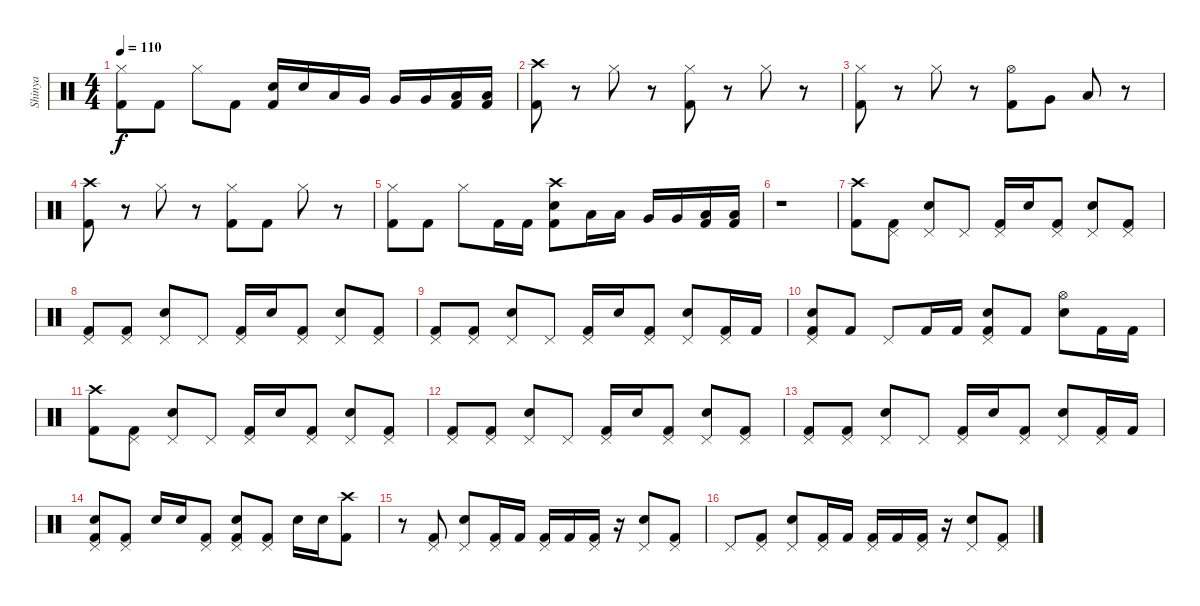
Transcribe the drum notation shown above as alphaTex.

\track ("Shinya" "Shinya") {instrument percussion}
\staff {score}
\articulation defaults
\ts (4 4)
\tempo 110
\clef neutral
\ks c
("Hi-Hat (closed)" "Kick (hit) 2").8{dy f} "Kick (hit) 2".8 "Hi-Hat (closed)".8 "Kick (hit) 2".8 ("Electric Snare (hit)" "Kick (hit) 2").16 "Electric Snare (hit)".16 "Low Tom (hit)".16 "Very Low Tom (hit)".16 "Very Low Tom (hit)".16 "Very Low Tom (hit)".16 ("Low Floor Tom (hit)" "Kick (hit) 2").16 ("Low Floor Tom (hit)" "Kick (hit) 2").16 |
("Crash high (hit)" "Kick (hit) 2").8 r.8 "Hi-Hat (closed)".8 r.8 ("Hi-Hat (closed)" "Kick (hit) 2").8 r.8 "Hi-Hat (closed)".8 r.8 |
("Hi-Hat (closed)" "Kick (hit) 2").8 r.8 "Hi-Hat (closed)".8 r.8 ("Hi-Hat (open)" "Kick (hit) 2").8 "Very Low Tom (hit)".8 "Low Floor Tom (hit)".8 r.8 |
("Crash high (hit)" "Kick (hit) 2").8 r.8 "Hi-Hat (closed)".8 r.8 ("Hi-Hat (closed)" "Kick (hit) 2").8 "Kick (hit) 2".8 "Hi-Hat (closed)".8 r.8 |
("Hi-Hat (closed)" "Kick (hit) 2").8 "Kick (hit) 2".8 "Hi-Hat (closed)".8 "Kick (hit) 2".16 "Kick (hit) 2".16 ("Crash high (hit)" "Electric Snare (hit)" "Kick (hit) 2").8 "Low Tom (hit)".16 "Low Tom (hit)".16 "Very Low Tom (hit)".16 "Very Low Tom (hit)".16 ("Low Floor Tom (hit)" "Kick (hit) 2").16 ("Low Floor Tom (hit)" "Kick (hit) 2").16 |
r.1 |
("Crash high (hit)" "Kick (hit) 2").8 ("Pedal Hi-Hat (hit)" "Kick (hit) 2").8 ("Pedal Hi-Hat (hit)" "Electric Snare (hit)").8 "Pedal Hi-Hat (hit)".8 ("Pedal Hi-Hat (hit)" "Kick (hit) 2").16 "Electric Snare (hit)".16 ("Pedal Hi-Hat (hit)" "Kick (hit) 2").8 ("Pedal Hi-Hat (hit)" "Electric Snare (hit)").8 ("Pedal Hi-Hat (hit)" "Kick (hit) 2").8 |
("Pedal Hi-Hat (hit)" "Kick (hit) 2").8 ("Pedal Hi-Hat (hit)" "Kick (hit) 2").8 ("Pedal Hi-Hat (hit)" "Electric Snare (hit)").8 "Pedal Hi-Hat (hit)".8 ("Pedal Hi-Hat (hit)" "Kick (hit) 2").16 "Electric Snare (hit)".16 ("Pedal Hi-Hat (hit)" "Kick (hit) 2").8 ("Pedal Hi-Hat (hit)" "Electric Snare (hit)").8 ("Pedal Hi-Hat (hit)" "Kick (hit) 2").8 |
("Pedal Hi-Hat (hit)" "Kick (hit) 2").8 ("Pedal Hi-Hat (hit)" "Kick (hit) 2").8 ("Pedal Hi-Hat (hit)" "Electric Snare (hit)").8 "Pedal Hi-Hat (hit)".8 ("Pedal Hi-Hat (hit)" "Kick (hit) 2").16 "Electric Snare (hit)".16 ("Pedal Hi-Hat (hit)" "Kick (hit) 2").8 ("Pedal Hi-Hat (hit)" "Electric Snare (hit)").8 ("Pedal Hi-Hat (hit)" "Kick (hit) 2").16 "Kick (hit) 2".16 |
("Pedal Hi-Hat (hit)" "Electric Snare (hit)" "Kick (hit) 2").8 "Kick (hit) 2".8 "Pedal Hi-Hat (hit)".8 "Kick (hit) 2".16 "Kick (hit) 2".16 ("Pedal Hi-Hat (hit)" "Electric Snare (hit)" "Kick (hit) 2").8 "Kick (hit) 2".8 ("Hi-Hat (open)" "Electric Snare (hit)").8 "Kick (hit) 2".16 "Kick (hit) 2".16 |
("Crash high (hit)" "Kick (hit) 2").8 ("Pedal Hi-Hat (hit)" "Kick (hit) 2").8 ("Pedal Hi-Hat (hit)" "Electric Snare (hit)").8 "Pedal Hi-Hat (hit)".8 ("Pedal Hi-Hat (hit)" "Kick (hit) 2").16 "Electric Snare (hit)".16 ("Pedal Hi-Hat (hit)" "Kick (hit) 2").8 ("Pedal Hi-Hat (hit)" "Electric Snare (hit)").8 ("Pedal Hi-Hat (hit)" "Kick (hit) 2").8 |
("Pedal Hi-Hat (hit)" "Kick (hit) 2").8 ("Pedal Hi-Hat (hit)" "Kick (hit) 2").8 ("Pedal Hi-Hat (hit)" "Electric Snare (hit)").8 "Pedal Hi-Hat (hit)".8 ("Pedal Hi-Hat (hit)" "Kick (hit) 2").16 "Electric Snare (hit)".16 ("Pedal Hi-Hat (hit)" "Kick (hit) 2").8 ("Pedal Hi-Hat (hit)" "Electric Snare (hit)").8 ("Pedal Hi-Hat (hit)" "Kick (hit) 2").8 |
("Pedal Hi-Hat (hit)" "Kick (hit) 2").8 ("Pedal Hi-Hat (hit)" "Kick (hit) 2").8 ("Pedal Hi-Hat (hit)" "Electric Snare (hit)").8 "Pedal Hi-Hat (hit)".8 ("Pedal Hi-Hat (hit)" "Kick (hit) 2").16 "Electric Snare (hit)".16 ("Pedal Hi-Hat (hit)" "Kick (hit) 2").8 ("Pedal Hi-Hat (hit)" "Electric Snare (hit)").8 ("Pedal Hi-Hat (hit)" "Kick (hit) 2").16 "Kick (hit) 2".16 |
("Pedal Hi-Hat (hit)" "Electric Snare (hit)" "Kick (hit) 2").8 ("Pedal Hi-Hat (hit)" "Kick (hit) 2").8 "Electric Snare (hit)".16 "Electric Snare (hit)".16 ("Pedal Hi-Hat (hit)" "Kick (hit) 2").8 ("Pedal Hi-Hat (hit)" "Electric Snare (hit)" "Kick (hit) 2").8 ("Pedal Hi-Hat (hit)" "Kick (hit) 2").8 "Electric Snare (hit)".16 "Electric Snare (hit)".16 ("Crash high (hit)" "Kick (hit) 2").8 |
r.8 ("Pedal Hi-Hat (hit)" "Kick (hit) 2").8 ("Pedal Hi-Hat (hit)" "Electric Snare (hit)").8 ("Pedal Hi-Hat (hit)" "Kick (hit) 2").16 "Kick (hit) 2".16 ("Pedal Hi-Hat (hit)" "Kick (hit) 2").16 "Kick (hit) 2".16 ("Pedal Hi-Hat (hit)" "Kick (hit) 2").16 r.16 ("Pedal Hi-Hat (hit)" "Electric Snare (hit)").8 ("Pedal Hi-Hat (hit)" "Kick (hit) 2").8 |
"Pedal Hi-Hat (hit)".8 ("Pedal Hi-Hat (hit)" "Kick (hit) 2").8 ("Pedal Hi-Hat (hit)" "Electric Snare (hit)").8 ("Pedal Hi-Hat (hit)" "Kick (hit) 2").16 "Kick (hit) 2".16 ("Pedal Hi-Hat (hit)" "Kick (hit) 2").16 "Kick (hit) 2".16 ("Pedal Hi-Hat (hit)" "Kick (hit) 2").16 r.16 ("Pedal Hi-Hat (hit)" "Electric Snare (hit)").8 ("Pedal Hi-Hat (hit)" "Kick (hit) 2").8
